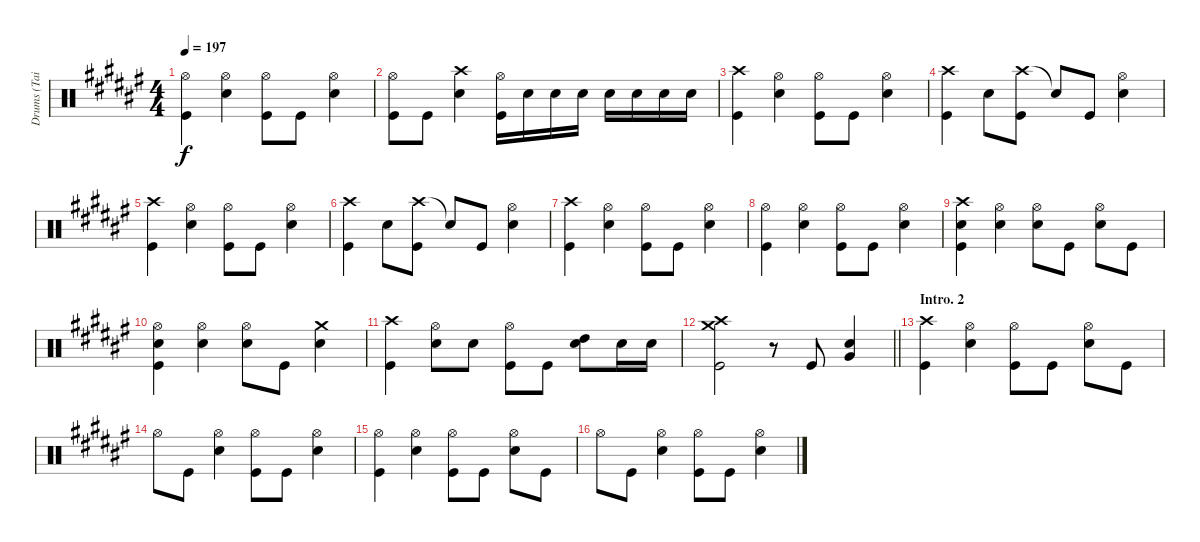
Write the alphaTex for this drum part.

\track ("Drums (Tainaka Ritsu)" "Drums (Tai") {instrument percussion}
\staff {score}
\articulation defaults
\ts (4 4)
\tempo 197
\clef neutral
\ks f#
("Hi-Hat (open)" "Kick (hit)").4{dy f} ("Hi-Hat (open)" "Snare (hit) 2").4 ("Hi-Hat (open)" "Kick (hit)").8 "Kick (hit)".8 ("Hi-Hat (open)" "Snare (hit) 2").4 |
("Hi-Hat (open)" "Kick (hit)").8 "Kick (hit)".8 ("Crash high (hit)" "Snare (hit) 2").4 ("Hi-Hat (open)" "Kick (hit)").16 "Snare (hit) 2".16 "Snare (hit) 2".16 "Snare (hit) 2".16 "Snare (hit) 2".16 "Snare (hit) 2".16 "Snare (hit) 2".16 "Snare (hit) 2".16 |
("Crash high (hit)" "Kick (hit)").4 ("Hi-Hat (open)" "Snare (hit) 2").4 ("Hi-Hat (open)" "Kick (hit)").8 "Kick (hit)".8 ("Hi-Hat (open)" "Snare (hit) 2").4 |
("Crash high (hit)" "Kick (hit)").4 "Snare (hit) 2".8 ("Crash high (hit)" "Kick (hit)").8 "Snare (hit)"{t}.8 "Kick (hit)".8 ("Hi-Hat (open)" "Snare (hit) 2").4 |
("Crash high (hit)" "Kick (hit)").4 ("Hi-Hat (open)" "Snare (hit) 2").4 ("Hi-Hat (open)" "Kick (hit)").8 "Kick (hit)".8 ("Hi-Hat (open)" "Snare (hit) 2").4 |
("Crash high (hit)" "Kick (hit)").4 "Snare (hit) 2".8 ("Crash high (hit)" "Kick (hit)").8 "Snare (hit)"{t}.8 "Kick (hit)".8 ("Hi-Hat (open)" "Snare (hit) 2").4 |
("Crash high (hit)" "Kick (hit)").4 ("Hi-Hat (open)" "Snare (hit) 2").4 ("Hi-Hat (open)" "Kick (hit)").8 "Kick (hit)".8 ("Hi-Hat (open)" "Snare (hit) 2").4 |
("Hi-Hat (open)" "Kick (hit)").4 ("Hi-Hat (open)" "Snare (hit) 2").4 ("Hi-Hat (open)" "Kick (hit)").8 "Kick (hit)".8 ("Hi-Hat (open)" "Snare (hit) 2").4 |
("Crash high (hit)" "Snare (hit) 2" "Kick (hit)").4 ("Hi-Hat (open)" "Snare (hit) 2").4 ("Hi-Hat (open)" "Snare (hit) 2").8 "Kick (hit)".8 ("Hi-Hat (open)" "Snare (hit) 2").8 "Kick (hit)".8 |
("Hi-Hat (open)" "Snare (hit) 2" "Kick (hit)").4 ("Hi-Hat (open)" "Snare (hit) 2").4 ("Hi-Hat (open)" "Snare (hit) 2").8 "Kick (hit)".8 ("Crash medium (hit)" "Snare (hit) 2").4 |
("Crash high (hit)" "Kick (hit)").4 ("Hi-Hat (open)" "Snare (hit) 2").8 "Snare (hit) 2".8 ("Hi-Hat (open)" "Kick (hit)").8 "Kick (hit)".8 ("High Tom (hit)" "Snare (hit) 2").8 "Snare (hit) 2".16 "Snare (hit) 2".16 |
\barLineRight lightlight
("Crash high (hit)" "Crash medium (hit)" "Kick (hit)").2 r.8 "Kick (hit)".8 ("Snare (hit) 2" "Very Low Tom (hit)").4 |
\section ("" "Intro. 2")
("Crash high (hit)" "Kick (hit)").4 ("Hi-Hat (open)" "Snare (hit) 2").4 ("Hi-Hat (open)" "Kick (hit)").8 "Kick (hit)".8 ("Hi-Hat (open)" "Snare (hit) 2").8 "Kick (hit)".8 |
"Hi-Hat (open)".8 "Kick (hit)".8 ("Hi-Hat (open)" "Snare (hit) 2").4 ("Hi-Hat (open)" "Kick (hit)").8 "Kick (hit)".8 ("Hi-Hat (open)" "Snare (hit) 2").4 |
("Hi-Hat (open)" "Kick (hit)").4 ("Hi-Hat (open)" "Snare (hit) 2").4 ("Hi-Hat (open)" "Kick (hit)").8 "Kick (hit)".8 ("Hi-Hat (open)" "Snare (hit) 2").8 "Kick (hit)".8 |
"Hi-Hat (open)".8 "Kick (hit)".8 ("Hi-Hat (open)" "Snare (hit) 2").4 ("Hi-Hat (open)" "Kick (hit)").8 "Kick (hit)".8 ("Hi-Hat (open)" "Snare (hit) 2").4
